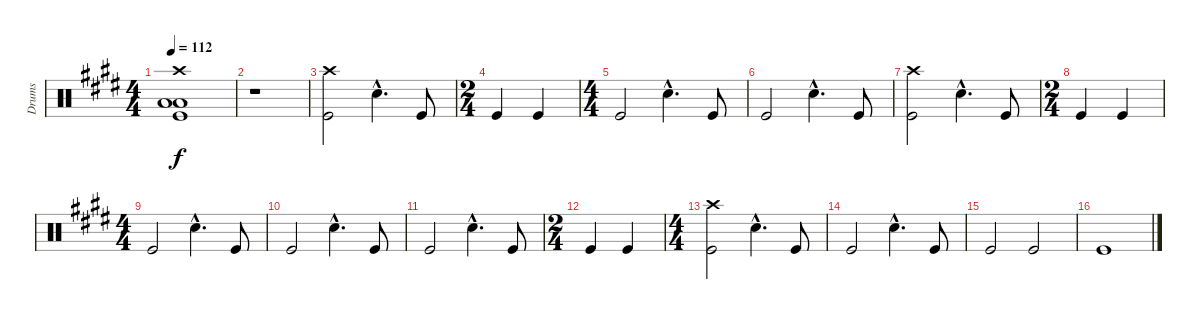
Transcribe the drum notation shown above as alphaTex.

\track ("Drums" "Drums") {instrument percussion}
\staff {score}
\articulation defaults
\ts (4 4)
\tempo 112
\clef neutral
\ks e
("Crash high (hit)" "Low Floor Tom (hit)" "Low Floor Tom (hit)" "Kick (hit)").1{dy f} |
r.1 |
("Crash high (hit)" "Kick (hit)").2 "Snare (hit) 2"{hac}.4{d} "Kick (hit)".8 |
\ts (2 4)
"Kick (hit)".4 "Kick (hit)".4 |
\ts (4 4)
"Kick (hit)".2 "Snare (hit) 2"{hac}.4{d} "Kick (hit)".8 |
"Kick (hit)".2 "Snare (hit) 2"{hac}.4{d} "Kick (hit)".8 |
("Crash high (hit)" "Kick (hit)").2 "Snare (hit) 2"{hac}.4{d} "Kick (hit)".8 |
\ts (2 4)
"Kick (hit)".4 "Kick (hit)".4 |
\ts (4 4)
"Kick (hit)".2 "Snare (hit) 2"{hac}.4{d} "Kick (hit)".8 |
"Kick (hit)".2 "Snare (hit) 2"{hac}.4{d} "Kick (hit)".8 |
"Kick (hit)".2 "Snare (hit) 2"{hac}.4{d} "Kick (hit)".8 |
\ts (2 4)
"Kick (hit)".4 "Kick (hit)".4 |
\ts (4 4)
("Crash high (hit)" "Kick (hit)").2 "Snare (hit) 2"{hac}.4{d} "Kick (hit)".8 |
"Kick (hit)".2 "Snare (hit) 2"{hac}.4{d} "Kick (hit)".8 |
"Kick (hit)".2 "Kick (hit)".2 |
"Kick (hit)".1
